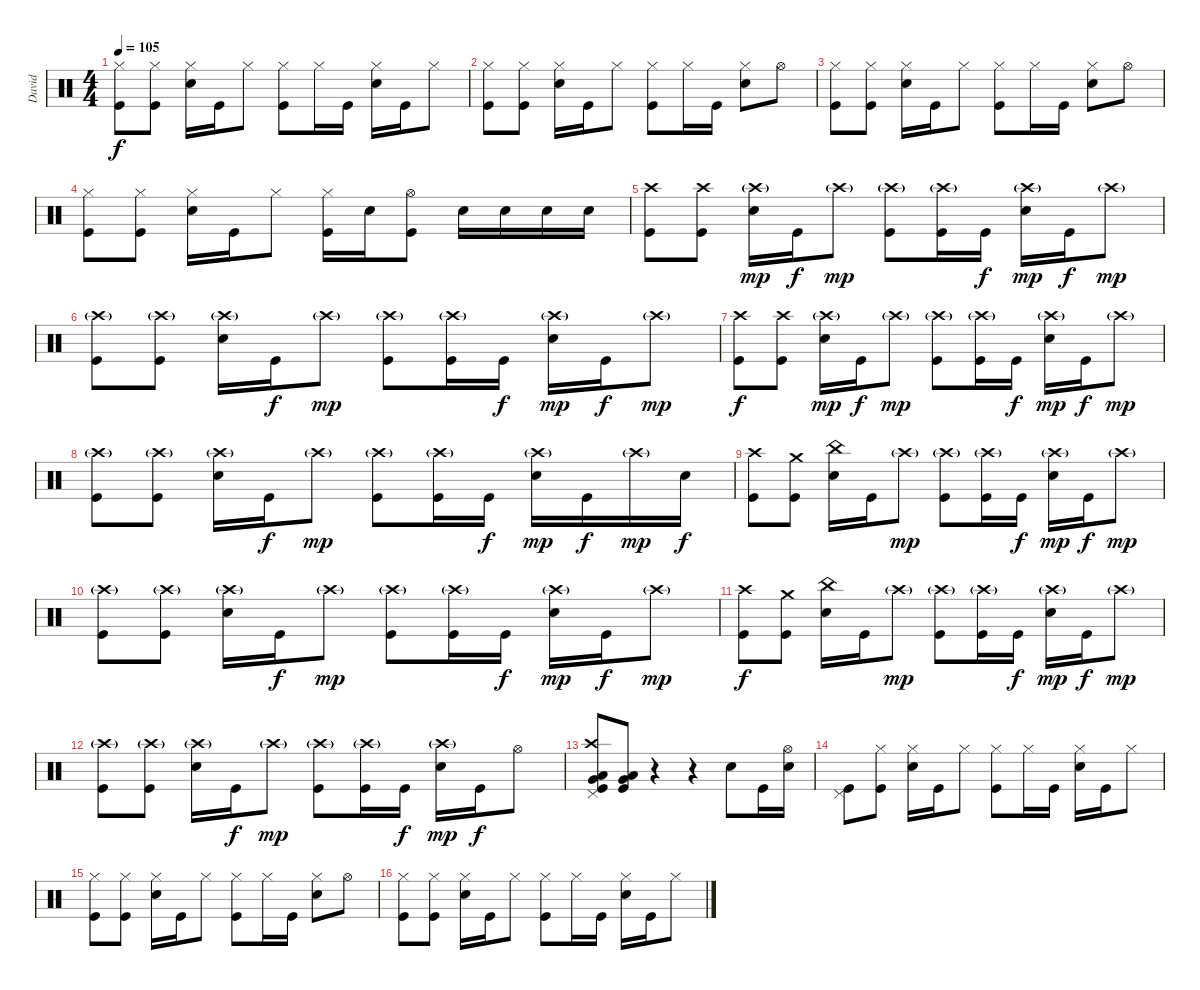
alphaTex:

\track ("David" "David") {instrument percussion}
\staff {score}
\articulation defaults
\ts (4 4)
\tempo 105
\clef neutral
\ks c
("Hi-Hat (closed)" "Kick (hit)").8{dy f} ("Hi-Hat (closed)" "Kick (hit)").8 ("Hi-Hat (closed)" "Snare (hit) 2").16 "Kick (hit)".16 "Hi-Hat (closed)".8 ("Hi-Hat (closed)" "Kick (hit)").8 "Hi-Hat (closed)".16 "Kick (hit)".16 ("Hi-Hat (closed)" "Snare (hit) 2").16 "Kick (hit)".16 "Hi-Hat (closed)".8 |
("Hi-Hat (closed)" "Kick (hit)").8 ("Hi-Hat (closed)" "Kick (hit)").8 ("Hi-Hat (closed)" "Snare (hit) 2").16 "Kick (hit)".16 "Hi-Hat (closed)".8 ("Hi-Hat (closed)" "Kick (hit)").8 "Hi-Hat (closed)".16 "Kick (hit)".16 ("Hi-Hat (closed)" "Snare (hit) 2").8 "Hi-Hat (open)".8 |
("Hi-Hat (closed)" "Kick (hit)").8 ("Hi-Hat (closed)" "Kick (hit)").8 ("Hi-Hat (closed)" "Snare (hit) 2").16 "Kick (hit)".16 "Hi-Hat (closed)".8 ("Hi-Hat (closed)" "Kick (hit)").8 "Hi-Hat (closed)".16 "Kick (hit)".16 ("Hi-Hat (closed)" "Snare (hit) 2").8 "Hi-Hat (open)".8 |
("Hi-Hat (closed)" "Kick (hit)").8 ("Hi-Hat (closed)" "Kick (hit)").8 ("Hi-Hat (closed)" "Snare (hit) 2").16 "Kick (hit)".16 "Hi-Hat (closed)".8 ("Hi-Hat (closed)" "Kick (hit)").16 "Snare (hit) 2".16 ("Hi-Hat (open)" "Kick (hit)").8 "Snare (hit) 2".16 "Snare (hit) 2".16 "Snare (hit) 2".16 "Snare (hit) 2".16 |
("Crash high (hit)" "Kick (hit)").8 ("Kick (hit)" "Crash high (hit)").8 ("Snare (hit) 2" "Crash high (hit)"{g}).16{dy mp} "Kick (hit)".16{dy f} "Crash high (hit)"{g}.8{dy mp} ("Crash high (hit)"{g} "Kick (hit)").8 ("Kick (hit)" "Crash high (hit)"{g}).16 "Kick (hit)".16{dy f} ("Snare (hit) 2" "Crash high (hit)"{g}).16{dy mp} "Kick (hit)".16{dy f} "Crash high (hit)"{g}.8{dy mp} |
("Crash high (hit)"{g} "Kick (hit)").8 ("Kick (hit)" "Crash high (hit)"{g}).8 ("Snare (hit) 2" "Crash high (hit)"{g}).16 "Kick (hit)".16{dy f} "Crash high (hit)"{g}.8{dy mp} ("Crash high (hit)"{g} "Kick (hit)").8 ("Crash high (hit)"{g} "Kick (hit)").16 "Kick (hit)".16{dy f} ("Crash high (hit)"{g} "Snare (hit) 2").16{dy mp} "Kick (hit)".16{dy f} "Crash high (hit)"{g}.8{dy mp} |
("Crash high (hit)" "Kick (hit)").8{dy f} ("Kick (hit)" "Crash high (hit)").8 ("Snare (hit) 2" "Crash high (hit)"{g}).16{dy mp} "Kick (hit)".16{dy f} "Crash high (hit)"{g}.8{dy mp} ("Crash high (hit)"{g} "Kick (hit)").8 ("Crash high (hit)"{g} "Kick (hit)").16 "Kick (hit)".16{dy f} ("Crash high (hit)"{g} "Snare (hit) 2").16{dy mp} "Kick (hit)".16{dy f} "Crash high (hit)"{g}.8{dy mp} |
("Crash high (hit)"{g} "Kick (hit)").8 ("Kick (hit)" "Crash high (hit)"{g}).8 ("Snare (hit) 2" "Crash high (hit)"{g}).16 "Kick (hit)".16{dy f} "Crash high (hit)"{g}.8{dy mp} ("Crash high (hit)"{g} "Kick (hit)").8 ("Crash high (hit)"{g} "Kick (hit)").16 "Kick (hit)".16{dy f} ("Crash high (hit)"{g} "Snare (hit) 2").16{dy mp} "Kick (hit)".16{dy f} "Crash high (hit)"{g}.16{dy mp} "Snare (hit) 2".16{dy f} |
("Crash high (hit)" "Kick (hit)").8 ("Kick (hit)" "Crash medium (hit)").8 ("Snare (hit) 2" "China (hit)").16 "Kick (hit)".16 "Crash high (hit)"{g}.8{dy mp} ("Crash high (hit)"{g} "Kick (hit)").8 ("Crash high (hit)"{g} "Kick (hit)").16 "Kick (hit)".16{dy f} ("Crash high (hit)"{g} "Snare (hit) 2").16{dy mp} "Kick (hit)".16{dy f} "Crash high (hit)"{g}.8{dy mp} |
("Crash high (hit)"{g} "Kick (hit)").8 ("Kick (hit)" "Crash high (hit)"{g}).8 ("Snare (hit) 2" "Crash high (hit)"{g}).16 "Kick (hit)".16{dy f} "Crash high (hit)"{g}.8{dy mp} ("Crash high (hit)"{g} "Kick (hit)").8 ("Crash high (hit)"{g} "Kick (hit)").16 "Kick (hit)".16{dy f} ("Crash high (hit)"{g} "Snare (hit) 2").16{dy mp} "Kick (hit)".16{dy f} "Crash high (hit)"{g}.8{dy mp} |
("Crash high (hit)" "Kick (hit)").8{dy f} ("Kick (hit)" "Crash medium (hit)").8 ("Snare (hit) 2" "China (hit)").16 "Kick (hit)".16 "Crash high (hit)"{g}.8{dy mp} ("Crash high (hit)"{g} "Kick (hit)").8 ("Crash high (hit)"{g} "Kick (hit)").16 "Kick (hit)".16{dy f} ("Crash high (hit)"{g} "Snare (hit) 2").16{dy mp} "Kick (hit)".16{dy f} "Crash high (hit)"{g}.8{dy mp} |
("Crash high (hit)"{g} "Kick (hit)").8 ("Kick (hit)" "Crash high (hit)"{g}).8 ("Snare (hit) 2" "Crash high (hit)"{g}).16 "Kick (hit)".16{dy f} "Crash high (hit)"{g}.8{dy mp} ("Crash high (hit)"{g} "Kick (hit)").8 ("Crash high (hit)"{g} "Kick (hit)").16 "Kick (hit)".16{dy f} ("Crash high (hit)"{g} "Snare (hit) 2").16{dy mp} "Kick (hit)".16{dy f} "Hi-Hat (open)".8 |
("Pedal Hi-Hat (hit)" "Kick (hit)" "Low Floor Tom (hit)" "Very Low Tom (hit)" "Crash high (hit)").8 ("Very Low Tom (hit)" "Kick (hit)" "Low Floor Tom (hit)").8 r.4 r.4 "Snare (hit) 2".8 "Kick (hit)".16 ("Hi-Hat (open)" "Snare (hit) 2").16 |
("Pedal Hi-Hat (hit)" "Kick (hit)").8 ("Hi-Hat (closed)" "Kick (hit)").8 ("Hi-Hat (closed)" "Snare (hit) 2").16 "Kick (hit)".16 "Hi-Hat (closed)".8 ("Hi-Hat (closed)" "Kick (hit)").8 "Hi-Hat (closed)".16 "Kick (hit)".16 ("Hi-Hat (closed)" "Snare (hit) 2").16 "Kick (hit)".16 "Hi-Hat (closed)".8 |
("Hi-Hat (closed)" "Kick (hit)").8 ("Hi-Hat (closed)" "Kick (hit)").8 ("Hi-Hat (closed)" "Snare (hit) 2").16 "Kick (hit)".16 "Hi-Hat (closed)".8 ("Hi-Hat (closed)" "Kick (hit)").8 "Hi-Hat (closed)".16 "Kick (hit)".16 ("Hi-Hat (closed)" "Snare (hit) 2").8 "Hi-Hat (open)".8 |
("Hi-Hat (closed)" "Kick (hit)").8 ("Hi-Hat (closed)" "Kick (hit)").8 ("Hi-Hat (closed)" "Snare (hit) 2").16 "Kick (hit)".16 "Hi-Hat (closed)".8 ("Hi-Hat (closed)" "Kick (hit)").8 "Hi-Hat (closed)".16 "Kick (hit)".16 ("Hi-Hat (closed)" "Snare (hit) 2").16 "Kick (hit)".16 "Hi-Hat (closed)".8
